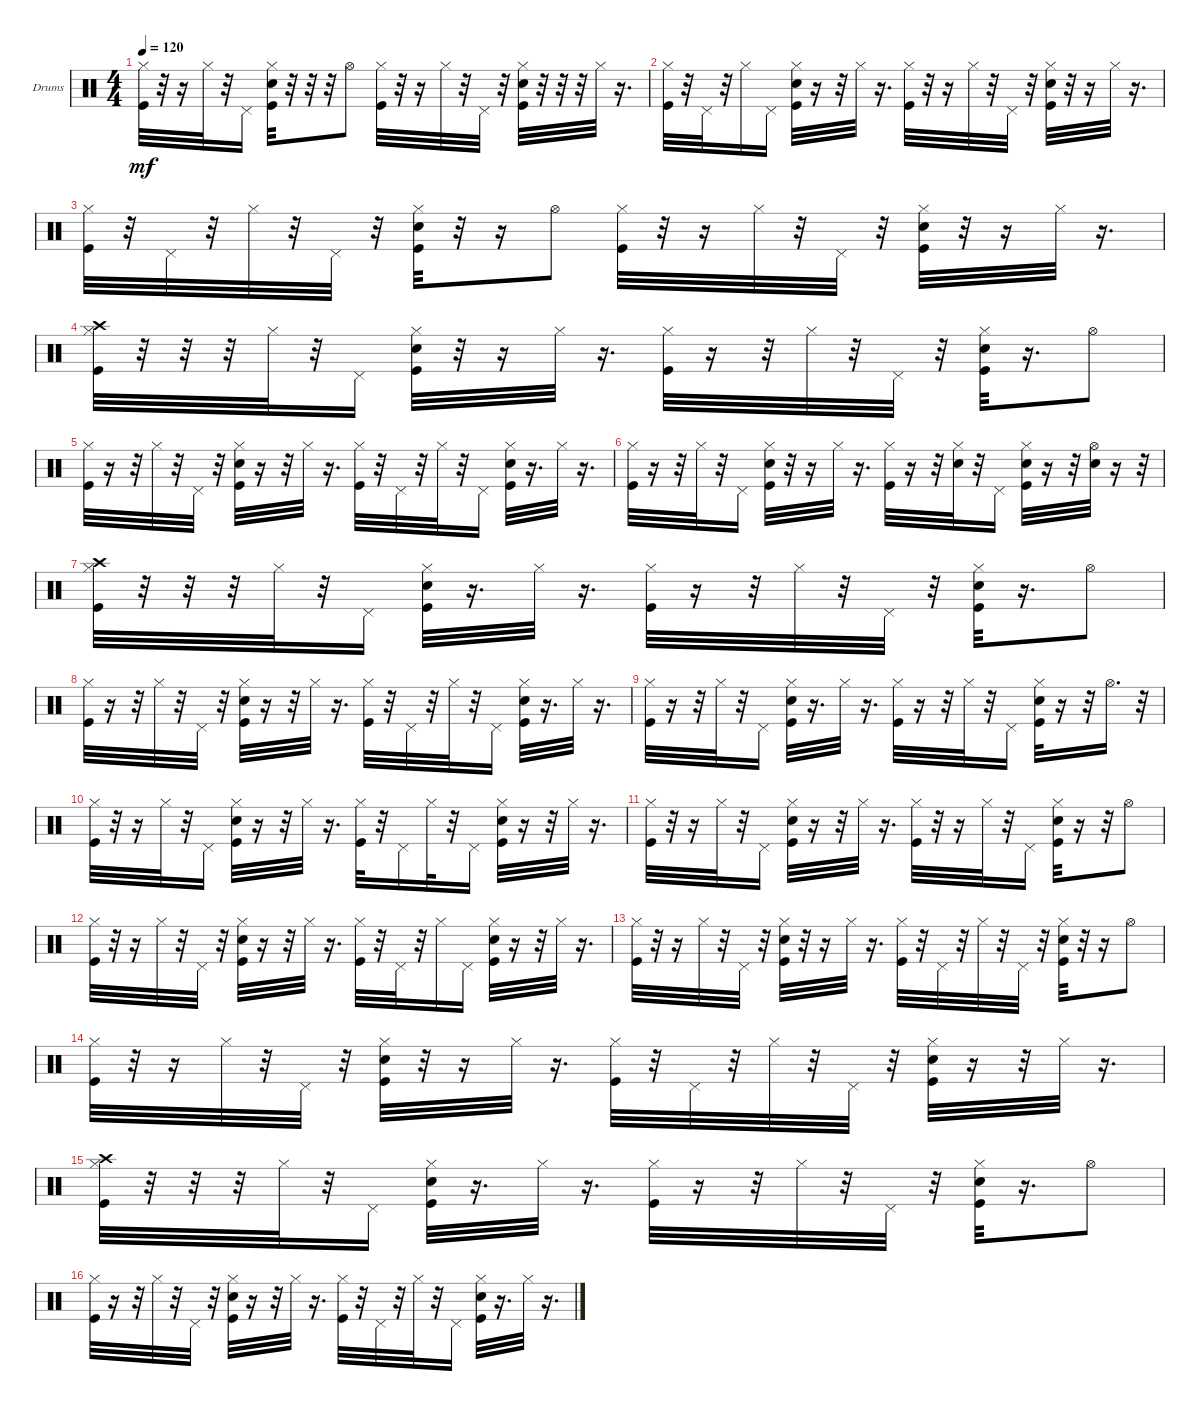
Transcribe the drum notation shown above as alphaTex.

\bracketExtendMode groupsimilarinstruments
\firstSystemTrackNameOrientation horizontal
\otherSystemsTrackNameOrientation horizontal
\track ("Ударные" "Drums") {instrument percussion}
\staff {score}
\articulation defaults
\ts (4 4)
\tempo 120
\clef neutral
\ks c
("Kick (hit)" "Hi-Hat (closed)").32{dy mf} r.32 r.16 "Hi-Hat (closed)".32 r.32 "Pedal Hi-Hat (hit)".16 ("Snare (hit) 2" "Kick (hit)" "Hi-Hat (closed)").32 r.32 r.32 r.32 "Hi-Hat (open)".8 ("Kick (hit)" "Hi-Hat (closed)").32 r.32 r.16 "Hi-Hat (closed)".32 r.32 "Pedal Hi-Hat (hit)".32 r.32 ("Kick (hit)" "Snare (hit) 2" "Hi-Hat (closed)").32 r.32 r.32 r.32 "Hi-Hat (closed)".32 r.16{d} |
("Kick (hit)" "Hi-Hat (closed)").32 r.32 "Pedal Hi-Hat (hit)".32 r.32 "Hi-Hat (closed)".16 "Pedal Hi-Hat (hit)".16 ("Snare (hit) 2" "Kick (hit)" "Hi-Hat (closed)").32 r.16 r.32 "Hi-Hat (closed)".32 r.16{d} ("Kick (hit)" "Hi-Hat (closed)").32 r.32 r.16 "Hi-Hat (closed)".32 r.32 "Pedal Hi-Hat (hit)".32 r.32 ("Kick (hit)" "Snare (hit) 2" "Hi-Hat (closed)").32 r.32 r.16 "Hi-Hat (closed)".32 r.16{d} |
("Kick (hit)" "Hi-Hat (closed)").32 r.32 "Pedal Hi-Hat (hit)".32 r.32 "Hi-Hat (closed)".32 r.32 "Pedal Hi-Hat (hit)".32 r.32 ("Snare (hit) 2" "Kick (hit)" "Hi-Hat (closed)").32 r.32 r.16 "Hi-Hat (open)".8 ("Kick (hit)" "Hi-Hat (closed)").32 r.32 r.16 "Hi-Hat (closed)".32 r.32 "Pedal Hi-Hat (hit)".32 r.32 ("Snare (hit) 2" "Kick (hit)" "Hi-Hat (closed)").32 r.32 r.16 "Hi-Hat (closed)".32 r.16{d} |
("Kick (hit)" "Hi-Hat (closed)" "Crash high (hit)").32 r.32 r.32 r.32 "Hi-Hat (closed)".32 r.32 "Pedal Hi-Hat (hit)".16 ("Kick (hit)" "Snare (hit) 2" "Hi-Hat (closed)").32 r.32 r.16 "Hi-Hat (closed)".32 r.16{d} ("Kick (hit)" "Hi-Hat (closed)").32 r.16 r.32 "Hi-Hat (closed)".32 r.32 "Pedal Hi-Hat (hit)".32 r.32 ("Kick (hit)" "Snare (hit) 2" "Hi-Hat (closed)").32 r.16{d} "Hi-Hat (open)".8 |
("Kick (hit)" "Hi-Hat (closed)").32 r.16 r.32 "Hi-Hat (closed)".32 r.32 "Pedal Hi-Hat (hit)".32 r.32 ("Snare (hit) 2" "Kick (hit)" "Hi-Hat (closed)").32 r.16 r.32 "Hi-Hat (closed)".32 r.16{d} ("Kick (hit)" "Hi-Hat (closed)").32 r.32 "Pedal Hi-Hat (hit)".32 r.32 "Hi-Hat (closed)".32 r.32 "Pedal Hi-Hat (hit)".16 ("Kick (hit)" "Snare (hit) 2" "Hi-Hat (closed)").32 r.16{d} "Hi-Hat (closed)".32 r.16{d} |
("Kick (hit)" "Hi-Hat (closed)").32 r.16 r.32 "Hi-Hat (closed)".32 r.32 "Pedal Hi-Hat (hit)".16 ("Snare (hit) 2" "Kick (hit)" "Hi-Hat (closed)").32 r.32 r.16 "Hi-Hat (closed)".32 r.16{d} ("Kick (hit)" "Hi-Hat (closed)").32 r.16 r.32 ("Hi-Hat (closed)" "Snare (hit) 2").32 r.32 "Pedal Hi-Hat (hit)".16 ("Snare (hit) 2" "Kick (hit)" "Hi-Hat (closed)").32 r.16 r.32 ("Hi-Hat (open)" "Snare (hit) 2").32 r.16 r.32 |
("Kick (hit)" "Hi-Hat (closed)" "Crash high (hit)").32 r.32 r.32 r.32 "Hi-Hat (closed)".32 r.32 "Pedal Hi-Hat (hit)".16 ("Kick (hit)" "Snare (hit) 2" "Hi-Hat (closed)").32 r.16{d} "Hi-Hat (closed)".32 r.16{d} ("Kick (hit)" "Hi-Hat (closed)").32 r.16 r.32 "Hi-Hat (closed)".32 r.32 "Pedal Hi-Hat (hit)".32 r.32 ("Kick (hit)" "Snare (hit) 2" "Hi-Hat (closed)").32 r.16{d} "Hi-Hat (open)".8 |
("Kick (hit)" "Hi-Hat (closed)").32 r.16 r.32 "Hi-Hat (closed)".32 r.32 "Pedal Hi-Hat (hit)".32 r.32 ("Snare (hit) 2" "Kick (hit)" "Hi-Hat (closed)").32 r.16 r.32 "Hi-Hat (closed)".32 r.16{d} ("Kick (hit)" "Hi-Hat (closed)").32 r.32 "Pedal Hi-Hat (hit)".32 r.32 "Hi-Hat (closed)".32 r.32 "Pedal Hi-Hat (hit)".16 ("Kick (hit)" "Snare (hit) 2" "Hi-Hat (closed)").32 r.16{d} "Hi-Hat (closed)".32 r.16{d} |
("Kick (hit)" "Hi-Hat (closed)").32 r.16 r.32 "Hi-Hat (closed)".32 r.32 "Pedal Hi-Hat (hit)".16 ("Snare (hit) 2" "Kick (hit)" "Hi-Hat (closed)").32 r.16{d} "Hi-Hat (closed)".32 r.16{d} ("Kick (hit)" "Hi-Hat (closed)").32 r.16 r.32 "Hi-Hat (closed)".32 r.32 "Pedal Hi-Hat (hit)".16 ("Snare (hit) 2" "Kick (hit)" "Hi-Hat (closed)").32 r.16 r.32 "Hi-Hat (open)".16{d} r.32 |
("Kick (hit)" "Hi-Hat (closed)").32 r.32 r.16 "Hi-Hat (closed)".32 r.32 "Pedal Hi-Hat (hit)".16 ("Kick (hit)" "Snare (hit) 2" "Hi-Hat (closed)").32 r.16 r.32 "Hi-Hat (closed)".32 r.16{d} ("Kick (hit)" "Hi-Hat (closed)").32 r.32 "Pedal Hi-Hat (hit)".16 "Hi-Hat (closed)".32 r.32 "Pedal Hi-Hat (hit)".16 ("Snare (hit) 2" "Kick (hit)" "Hi-Hat (closed)").32 r.16 r.32 "Hi-Hat (closed)".32 r.16{d} |
("Kick (hit)" "Hi-Hat (closed)").32 r.32 r.16 "Hi-Hat (closed)".32 r.32 "Pedal Hi-Hat (hit)".16 ("Snare (hit) 2" "Kick (hit)" "Hi-Hat (closed)").32 r.16 r.32 "Hi-Hat (closed)".32 r.16{d} ("Kick (hit)" "Hi-Hat (closed)").32 r.32 r.16 "Hi-Hat (closed)".32 r.32 "Pedal Hi-Hat (hit)".16 ("Snare (hit) 2" "Kick (hit)" "Hi-Hat (closed)").32 r.16 r.32 "Hi-Hat (open)".8 |
("Kick (hit)" "Hi-Hat (closed)").32 r.32 r.16 "Hi-Hat (closed)".32 r.32 "Pedal Hi-Hat (hit)".32 r.32 ("Kick (hit)" "Snare (hit) 2" "Hi-Hat (closed)").32 r.16 r.32 "Hi-Hat (closed)".32 r.16{d} ("Kick (hit)" "Hi-Hat (closed)").32 r.32 "Pedal Hi-Hat (hit)".32 r.32 "Hi-Hat (closed)".16 "Pedal Hi-Hat (hit)".16 ("Snare (hit) 2" "Kick (hit)" "Hi-Hat (closed)").32 r.16 r.32 "Hi-Hat (closed)".32 r.16{d} |
("Kick (hit)" "Hi-Hat (closed)").32 r.32 r.16 "Hi-Hat (closed)".32 r.32 "Pedal Hi-Hat (hit)".32 r.32 ("Kick (hit)" "Snare (hit) 2" "Hi-Hat (closed)").32 r.32 r.16 "Hi-Hat (closed)".32 r.16{d} ("Kick (hit)" "Hi-Hat (closed)").32 r.32 "Pedal Hi-Hat (hit)".32 r.32 "Hi-Hat (closed)".32 r.32 "Pedal Hi-Hat (hit)".32 r.32 ("Snare (hit) 2" "Kick (hit)" "Hi-Hat (closed)").32 r.32 r.16 "Hi-Hat (open)".8 |
("Kick (hit)" "Hi-Hat (closed)").32 r.32 r.16 "Hi-Hat (closed)".32 r.32 "Pedal Hi-Hat (hit)".32 r.32 ("Snare (hit) 2" "Kick (hit)" "Hi-Hat (closed)").32 r.32 r.16 "Hi-Hat (closed)".32 r.16{d} ("Kick (hit)" "Hi-Hat (closed)").32 r.32 "Pedal Hi-Hat (hit)".32 r.32 "Hi-Hat (closed)".32 r.32 "Pedal Hi-Hat (hit)".32 r.32 ("Snare (hit) 2" "Kick (hit)" "Hi-Hat (closed)").32 r.16 r.32 "Hi-Hat (closed)".32 r.16{d} |
("Kick (hit)" "Hi-Hat (closed)" "Crash high (hit)").32 r.32 r.32 r.32 "Hi-Hat (closed)".32 r.32 "Pedal Hi-Hat (hit)".16 ("Kick (hit)" "Snare (hit) 2" "Hi-Hat (closed)").32 r.16{d} "Hi-Hat (closed)".32 r.16{d} ("Kick (hit)" "Hi-Hat (closed)").32 r.16 r.32 "Hi-Hat (closed)".32 r.32 "Pedal Hi-Hat (hit)".32 r.32 ("Kick (hit)" "Snare (hit) 2" "Hi-Hat (closed)").32 r.16{d} "Hi-Hat (open)".8 |
("Kick (hit)" "Hi-Hat (closed)").32 r.16 r.32 "Hi-Hat (closed)".32 r.32 "Pedal Hi-Hat (hit)".32 r.32 ("Snare (hit) 2" "Kick (hit)" "Hi-Hat (closed)").32 r.16 r.32 "Hi-Hat (closed)".32 r.16{d} ("Kick (hit)" "Hi-Hat (closed)").32 r.32 "Pedal Hi-Hat (hit)".32 r.32 "Hi-Hat (closed)".32 r.32 "Pedal Hi-Hat (hit)".16 ("Kick (hit)" "Snare (hit) 2" "Hi-Hat (closed)").32 r.16{d} "Hi-Hat (closed)".32 r.16{d}
